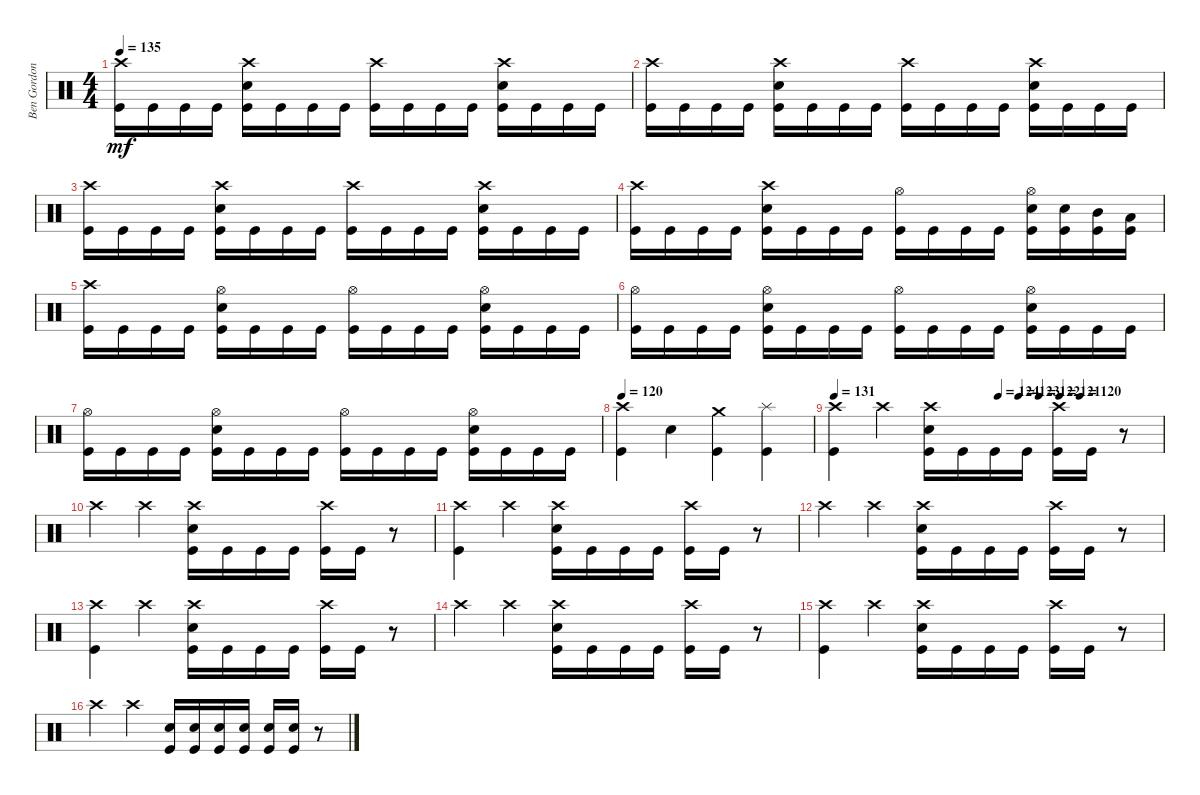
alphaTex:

\track ("Ben Gordon" "Ben Gordon") {instrument percussion}
\staff {score}
\articulation defaults
\ts (4 4)
\tempo 135
\clef neutral
\ks c
("Crash high (hit)" "Kick (hit)").16{dy mf} "Kick (hit)".16 "Kick (hit)".16 "Kick (hit)".16 ("Crash high (hit)" "Snare (hit) 2" "Kick (hit)").16 "Kick (hit)".16 "Kick (hit)".16 "Kick (hit)".16 ("Crash high (hit)" "Kick (hit)").16 "Kick (hit)".16 "Kick (hit)".16 "Kick (hit)".16 ("Crash high (hit)" "Snare (hit) 2" "Kick (hit)").16 "Kick (hit)".16 "Kick (hit)".16 "Kick (hit)".16 |
("Crash high (hit)" "Kick (hit)").16 "Kick (hit)".16 "Kick (hit)".16 "Kick (hit)".16 ("Crash high (hit)" "Snare (hit) 2" "Kick (hit)").16 "Kick (hit)".16 "Kick (hit)".16 "Kick (hit)".16 ("Crash high (hit)" "Kick (hit)").16 "Kick (hit)".16 "Kick (hit)".16 "Kick (hit)".16 ("Crash high (hit)" "Snare (hit) 2" "Kick (hit)").16 "Kick (hit)".16 "Kick (hit)".16 "Kick (hit)".16 |
("Crash high (hit)" "Kick (hit)").16 "Kick (hit)".16 "Kick (hit)".16 "Kick (hit)".16 ("Crash high (hit)" "Snare (hit) 2" "Kick (hit)").16 "Kick (hit)".16 "Kick (hit)".16 "Kick (hit)".16 ("Crash high (hit)" "Kick (hit)").16 "Kick (hit)".16 "Kick (hit)".16 "Kick (hit)".16 ("Crash high (hit)" "Snare (hit) 2" "Kick (hit)").16 "Kick (hit)".16 "Kick (hit)".16 "Kick (hit)".16 |
("Crash high (hit)" "Kick (hit)").16 "Kick (hit)".16 "Kick (hit)".16 "Kick (hit)".16 ("Crash high (hit)" "Snare (hit) 2" "Kick (hit)").16 "Kick (hit)".16 "Kick (hit)".16 "Kick (hit)".16 ("Hi-Hat (open)" "Kick (hit)").16 "Kick (hit)".16 "Kick (hit)".16 "Kick (hit)".16 ("Hi-Hat (open)" "Snare (hit) 2" "Kick (hit)").16 ("Snare (hit) 2" "Kick (hit)").16 ("Mid Tom (hit)" "Kick (hit)").16 ("Low Tom (hit)" "Kick (hit)").16 |
("Crash high (hit)" "Kick (hit)").16 "Kick (hit)".16 "Kick (hit)".16 "Kick (hit)".16 ("Hi-Hat (open)" "Snare (hit) 2" "Kick (hit)").16 "Kick (hit)".16 "Kick (hit)".16 "Kick (hit)".16 ("Hi-Hat (open)" "Kick (hit)").16 "Kick (hit)".16 "Kick (hit)".16 "Kick (hit)".16 ("Hi-Hat (open)" "Snare (hit) 2" "Kick (hit)").16 "Kick (hit)".16 "Kick (hit)".16 "Kick (hit)".16 |
("Hi-Hat (open)" "Kick (hit)").16 "Kick (hit)".16 "Kick (hit)".16 "Kick (hit)".16 ("Hi-Hat (open)" "Snare (hit) 2" "Kick (hit)").16 "Kick (hit)".16 "Kick (hit)".16 "Kick (hit)".16 ("Hi-Hat (open)" "Kick (hit)").16 "Kick (hit)".16 "Kick (hit)".16 "Kick (hit)".16 ("Hi-Hat (open)" "Snare (hit) 2" "Kick (hit)").16 "Kick (hit)".16 "Kick (hit)".16 "Kick (hit)".16 |
("Hi-Hat (open)" "Kick (hit)").16 "Kick (hit)".16 "Kick (hit)".16 "Kick (hit)".16 ("Hi-Hat (open)" "Snare (hit) 2" "Kick (hit)").16 "Kick (hit)".16 "Kick (hit)".16 "Kick (hit)".16 ("Hi-Hat (open)" "Kick (hit)").16 "Kick (hit)".16 "Kick (hit)".16 "Kick (hit)".16 ("Hi-Hat (open)" "Snare (hit) 2" "Kick (hit)").16 "Kick (hit)".16 "Kick (hit)".16 "Kick (hit)".16 |
\tempo 120
("Crash high (hit)" "Kick (hit)").4 "Snare (hit) 2".4 ("Crash medium (hit)" "Kick (hit)").4 ("Splash (hit)" "Kick (hit)").4 |
\tempo 131
\tempo (124 0.5)
\tempo (123 0.5625)
\tempo (122 0.625)
\tempo (121 0.6875)
\tempo (120 0.75)
("Crash high (hit)" "Kick (hit)").4 "Crash high (hit)".4 ("Crash high (hit)" "Snare (hit) 2" "Kick (hit)").16 "Kick (hit)".16 "Kick (hit)".16 "Kick (hit)".16 ("Crash high (hit)" "Kick (hit)").16 "Kick (hit)".16 r.8 |
"Crash high (hit)".4 "Crash high (hit)".4 ("Crash high (hit)" "Snare (hit) 2" "Kick (hit)").16 "Kick (hit)".16 "Kick (hit)".16 "Kick (hit)".16 ("Crash high (hit)" "Kick (hit)").16 "Kick (hit)".16 r.8 |
("Crash high (hit)" "Kick (hit)").4 "Crash high (hit)".4 ("Crash high (hit)" "Snare (hit) 2" "Kick (hit)").16 "Kick (hit)".16 "Kick (hit)".16 "Kick (hit)".16 ("Crash high (hit)" "Kick (hit)").16 "Kick (hit)".16 r.8 |
"Crash high (hit)".4 "Crash high (hit)".4 ("Crash high (hit)" "Snare (hit) 2" "Kick (hit)").16 "Kick (hit)".16 "Kick (hit)".16 "Kick (hit)".16 ("Crash high (hit)" "Kick (hit)").16 "Kick (hit)".16 r.8 |
("Crash high (hit)" "Kick (hit)").4 "Crash high (hit)".4 ("Crash high (hit)" "Snare (hit) 2" "Kick (hit)").16 "Kick (hit)".16 "Kick (hit)".16 "Kick (hit)".16 ("Crash high (hit)" "Kick (hit)").16 "Kick (hit)".16 r.8 |
"Crash high (hit)".4 "Crash high (hit)".4 ("Crash high (hit)" "Snare (hit) 2" "Kick (hit)").16 "Kick (hit)".16 "Kick (hit)".16 "Kick (hit)".16 ("Crash high (hit)" "Kick (hit)").16 "Kick (hit)".16 r.8 |
("Crash high (hit)" "Kick (hit)").4 "Crash high (hit)".4 ("Crash high (hit)" "Snare (hit) 2" "Kick (hit)").16 "Kick (hit)".16 "Kick (hit)".16 "Kick (hit)".16 ("Crash high (hit)" "Kick (hit)").16 "Kick (hit)".16 r.8 |
"Crash high (hit)".4 "Crash high (hit)".4 ("Snare (hit) 2" "Kick (hit)").16 ("Snare (hit) 2" "Kick (hit)").16 ("Snare (hit) 2" "Kick (hit)").16 ("Snare (hit) 2" "Kick (hit)").16 ("Snare (hit) 2" "Kick (hit)").16 ("Snare (hit) 2" "Kick (hit)").16 r.8
